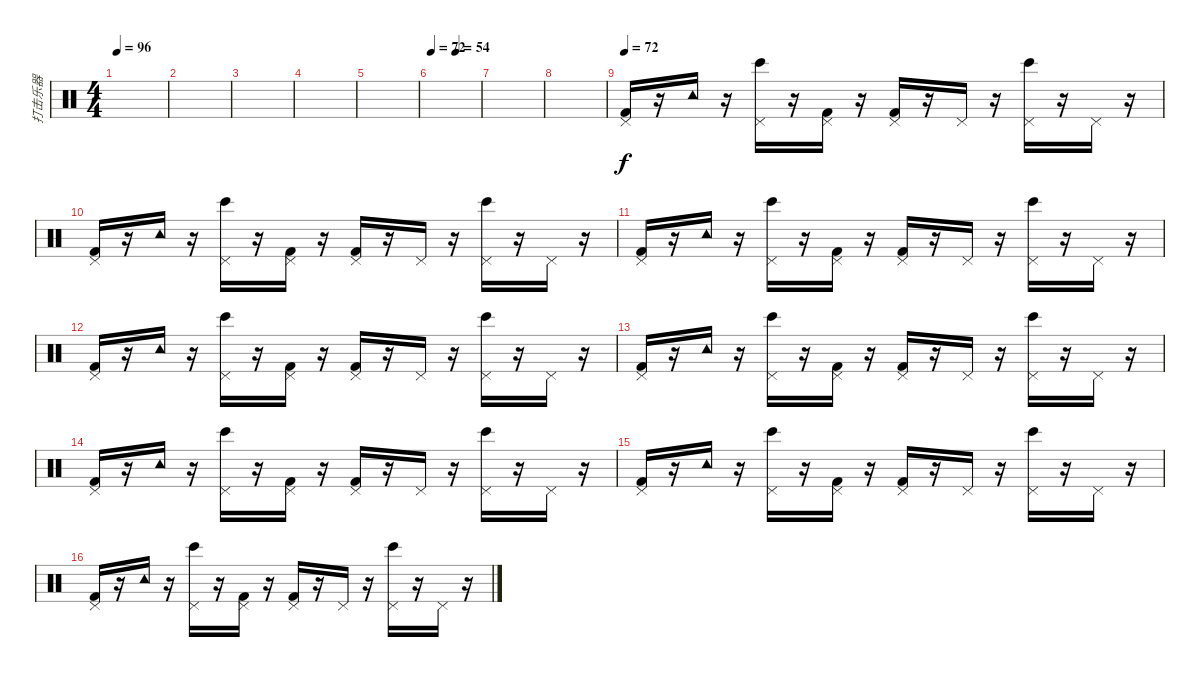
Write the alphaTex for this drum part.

\track ("打击乐器" "打击乐器") {instrument percussion}
\staff {score}
\articulation defaults
\ts (4 4)
\tempo 96
\clef neutral
\ks c
|
|
|
|
|
\tempo 72
\tempo (54 0.5)
|
|
|
\tempo 72
("Pedal Hi-Hat (hit)" "Kick (hit) 2").16 r.16 "Tambourine (hit)".16 r.16 ("Pedal Hi-Hat (hit)" "Bongo High (hit)").16 r.16 ("Pedal Hi-Hat (hit)" "Kick (hit) 2").16 r.16 ("Pedal Hi-Hat (hit)" "Kick (hit) 2").16 r.16 "Pedal Hi-Hat (hit)".16 r.16 ("Pedal Hi-Hat (hit)" "Bongo High (hit)").16 r.16 "Pedal Hi-Hat (hit)".16 r.16 |
("Pedal Hi-Hat (hit)" "Kick (hit) 2").16 r.16 "Tambourine (hit)".16 r.16 ("Pedal Hi-Hat (hit)" "Bongo High (hit)").16 r.16 ("Pedal Hi-Hat (hit)" "Kick (hit) 2").16 r.16 ("Pedal Hi-Hat (hit)" "Kick (hit) 2").16 r.16 "Pedal Hi-Hat (hit)".16 r.16 ("Pedal Hi-Hat (hit)" "Bongo High (hit)").16 r.16 "Pedal Hi-Hat (hit)".16 r.16 |
("Pedal Hi-Hat (hit)" "Kick (hit) 2").16 r.16 "Tambourine (hit)".16 r.16 ("Pedal Hi-Hat (hit)" "Bongo High (hit)").16 r.16 ("Pedal Hi-Hat (hit)" "Kick (hit) 2").16 r.16 ("Pedal Hi-Hat (hit)" "Kick (hit) 2").16 r.16 "Pedal Hi-Hat (hit)".16 r.16 ("Pedal Hi-Hat (hit)" "Bongo High (hit)").16 r.16 "Pedal Hi-Hat (hit)".16 r.16 |
("Pedal Hi-Hat (hit)" "Kick (hit) 2").16 r.16 "Tambourine (hit)".16 r.16 ("Pedal Hi-Hat (hit)" "Bongo High (hit)").16 r.16 ("Pedal Hi-Hat (hit)" "Kick (hit) 2").16 r.16 ("Pedal Hi-Hat (hit)" "Kick (hit) 2").16 r.16 "Pedal Hi-Hat (hit)".16 r.16 ("Pedal Hi-Hat (hit)" "Bongo High (hit)").16 r.16 "Pedal Hi-Hat (hit)".16 r.16 |
("Pedal Hi-Hat (hit)" "Kick (hit) 2").16 r.16 "Tambourine (hit)".16 r.16 ("Pedal Hi-Hat (hit)" "Bongo High (hit)").16 r.16 ("Pedal Hi-Hat (hit)" "Kick (hit) 2").16 r.16 ("Pedal Hi-Hat (hit)" "Kick (hit) 2").16 r.16 "Pedal Hi-Hat (hit)".16 r.16 ("Pedal Hi-Hat (hit)" "Bongo High (hit)").16 r.16 "Pedal Hi-Hat (hit)".16 r.16 |
("Pedal Hi-Hat (hit)" "Kick (hit) 2").16 r.16 "Tambourine (hit)".16 r.16 ("Pedal Hi-Hat (hit)" "Bongo High (hit)").16 r.16 ("Pedal Hi-Hat (hit)" "Kick (hit) 2").16 r.16 ("Pedal Hi-Hat (hit)" "Kick (hit) 2").16 r.16 "Pedal Hi-Hat (hit)".16 r.16 ("Pedal Hi-Hat (hit)" "Bongo High (hit)").16 r.16 "Pedal Hi-Hat (hit)".16 r.16 |
("Pedal Hi-Hat (hit)" "Kick (hit) 2").16 r.16 "Tambourine (hit)".16 r.16 ("Pedal Hi-Hat (hit)" "Bongo High (hit)").16 r.16 ("Pedal Hi-Hat (hit)" "Kick (hit) 2").16 r.16 ("Pedal Hi-Hat (hit)" "Kick (hit) 2").16 r.16 "Pedal Hi-Hat (hit)".16 r.16 ("Pedal Hi-Hat (hit)" "Bongo High (hit)").16 r.16 "Pedal Hi-Hat (hit)".16 r.16 |
("Pedal Hi-Hat (hit)" "Kick (hit) 2").16 r.16 "Tambourine (hit)".16 r.16 ("Pedal Hi-Hat (hit)" "Bongo High (hit)").16 r.16 ("Pedal Hi-Hat (hit)" "Kick (hit) 2").16 r.16 ("Pedal Hi-Hat (hit)" "Kick (hit) 2").16 r.16 "Pedal Hi-Hat (hit)".16 r.16 ("Pedal Hi-Hat (hit)" "Bongo High (hit)").16 r.16 "Pedal Hi-Hat (hit)".16 r.16
